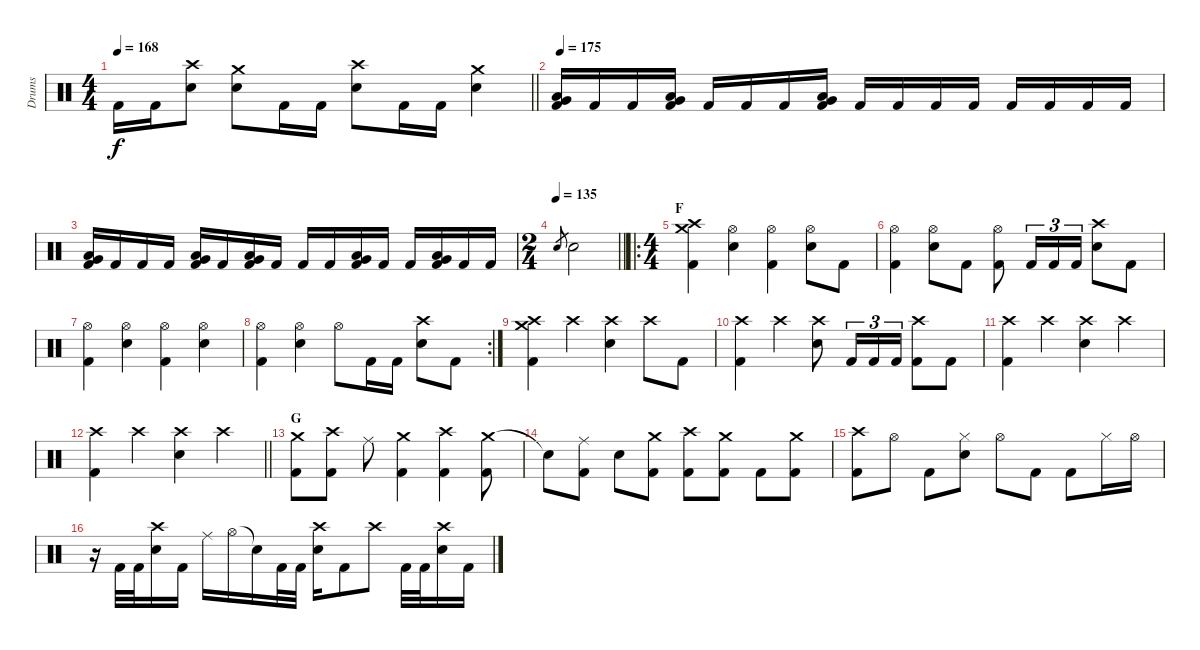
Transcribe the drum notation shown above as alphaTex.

\track ("Drums" "Drums") {instrument percussion}
\staff {score}
\articulation defaults
\ts (4 4)
\tempo 168
\clef neutral
\barLineRight lightlight
\ks c "Kick (hit) 2".16{dy f} "Kick (hit) 2".16
("Crash high (hit)" "Electric Snare (hit)").8 ("Crash medium (hit)" "Electric Snare (hit)").8 "Kick (hit) 2".16 "Kick (hit) 2".16 ("Crash high (hit)" "Electric Snare (hit)").8 "Kick (hit) 2".16 "Kick (hit) 2".16 ("Crash medium (hit)" "Electric Snare (hit)").4 |
\section ("" "")
\tempo 175
("Very Low Tom (hit)" "Low Floor Tom (hit)" "Kick (hit) 2").16 "Kick (hit) 2".16 "Kick (hit) 2".16 ("Very Low Tom (hit)" "Low Floor Tom (hit)" "Kick (hit) 2").16 "Kick (hit) 2".16 "Kick (hit) 2".16 "Kick (hit) 2".16 ("Very Low Tom (hit)" "Low Floor Tom (hit)" "Kick (hit) 2").16 "Kick (hit) 2".16 "Kick (hit) 2".16 "Kick (hit) 2".16 "Kick (hit) 2".16 "Kick (hit) 2".16 "Kick (hit) 2".16 "Kick (hit) 2".16 "Kick (hit) 2".16 |
("Very Low Tom (hit)" "Low Floor Tom (hit)" "Kick (hit) 2").16 "Kick (hit) 2".16 "Kick (hit) 2".16 "Kick (hit) 2".16 ("Very Low Tom (hit)" "Low Floor Tom (hit)" "Kick (hit) 2").16 "Kick (hit) 2".16 ("Very Low Tom (hit)" "Low Floor Tom (hit)" "Kick (hit) 2").16 "Kick (hit) 2".16 "Kick (hit) 2".16 "Kick (hit) 2".16 ("Very Low Tom (hit)" "Low Floor Tom (hit)" "Kick (hit) 2").16 "Kick (hit) 2".16 "Kick (hit) 2".16 ("Very Low Tom (hit)" "Low Floor Tom (hit)" "Kick (hit) 2").16 "Kick (hit) 2".16 "Kick (hit) 2".16 |
\ts (2 4)
\tempo 135
\barLineRight lightlight "Electric Snare (hit)".8{gr} "Electric Snare (hit)".2
|
\ro
\ts (4 4)
\section ("" "F")
("Crash medium (hit)" "Crash high (hit)" "Kick (hit) 2").4 ("Hi-Hat (open)" "Electric Snare (hit)").4 ("Hi-Hat (open)" "Kick (hit) 2").4 ("Hi-Hat (open)" "Electric Snare (hit)").8 "Kick (hit) 2".8 |
("Hi-Hat (open)" "Kick (hit) 2").4 ("Hi-Hat (open)" "Electric Snare (hit)").8 "Kick (hit) 2".8 ("Hi-Hat (open)" "Kick (hit) 2").8 "Kick (hit) 2".16{tu (3 2)} "Kick (hit) 2".16{tu (3 2)} "Kick (hit) 2".16{tu (3 2)} ("Crash high (hit)" "Electric Snare (hit)").8 "Kick (hit) 2".8 |
("Hi-Hat (open)" "Kick (hit) 2").4 ("Hi-Hat (open)" "Electric Snare (hit)").4 ("Hi-Hat (open)" "Kick (hit) 2").4 ("Hi-Hat (open)" "Electric Snare (hit)").4 |
\rc 2
("Hi-Hat (open)" "Kick (hit) 2").4 ("Hi-Hat (open)" "Electric Snare (hit)").4 "Hi-Hat (open)".8 "Kick (hit) 2".16 "Kick (hit) 2".16 ("Crash high (hit)" "Electric Snare (hit)").8 "Kick (hit) 2".8 |
("Crash medium (hit)" "Crash high (hit)" "Kick (hit) 2").4 "Crash high (hit)".4 ("Crash high (hit)" "Electric Snare (hit)").4 "Crash high (hit)".8 "Kick (hit) 2".8 |
("Crash high (hit)" "Kick (hit) 2").4 "Crash high (hit)".4 ("Crash high (hit)" "Electric Snare (hit)").8 "Kick (hit) 2".16{tu (3 2)} "Kick (hit) 2".16{tu (3 2)} "Kick (hit) 2".16{tu (3 2)} ("Crash high (hit)" "Kick (hit) 2").8 "Kick (hit) 2".8 |
("Crash high (hit)" "Kick (hit) 2").4 "Crash high (hit)".4 ("Crash high (hit)" "Electric Snare (hit)").4 "Crash high (hit)".4 |
\barLineRight lightlight
("Crash high (hit)" "Kick (hit) 2").4 "Crash high (hit)".4 ("Crash high (hit)" "Electric Snare (hit)").4 "Crash high (hit)".4 |
\section ("" "G")
("Crash medium (hit)" "Kick (hit) 2").8 ("Crash high (hit)" "Kick (hit) 2").8 "Ride (middle)".8 ("Crash medium (hit)" "Kick (hit) 2").4 ("Crash high (hit)" "Kick (hit) 2").4 ("Crash medium (hit)" "Kick (hit) 2").8 |
"Snare (hit)"{t}.8 ("Ride (middle)" "Kick (hit) 2").8 "Electric Snare (hit)".8 ("Crash medium (hit)" "Kick (hit) 2").8 ("Crash high (hit)" "Kick (hit) 2").8 ("Crash medium (hit)" "Kick (hit) 2").8 "Kick (hit) 2".8 ("Crash medium (hit)" "Kick (hit) 2").8 |
("Crash high (hit)" "Kick (hit) 2").8 "Hi-Hat (open)".8 "Kick (hit) 2".8 ("Hi-Hat (closed)" "Electric Snare (hit)").8 "Hi-Hat (open)".8 "Kick (hit) 2".8 "Kick (hit) 2".8 "Hi-Hat (closed)".16 "Hi-Hat (open)".16 |
r.16 "Kick (hit) 2".32 "Kick (hit) 2".32 ("Crash high (hit)" "Electric Snare (hit)").16 "Kick (hit) 2".16 "Ride (middle)".16 "Hi-Hat (open)".16 "Snare (hit)"{t}.16 "Kick (hit) 2".32 "Kick (hit) 2".32 ("Crash high (hit)" "Electric Snare (hit)").16 "Kick (hit) 2".8 "Crash high (hit)".8 "Kick (hit) 2".32 "Kick (hit) 2".32 ("Crash high (hit)" "Electric Snare (hit)").16 "Kick (hit) 2".16
